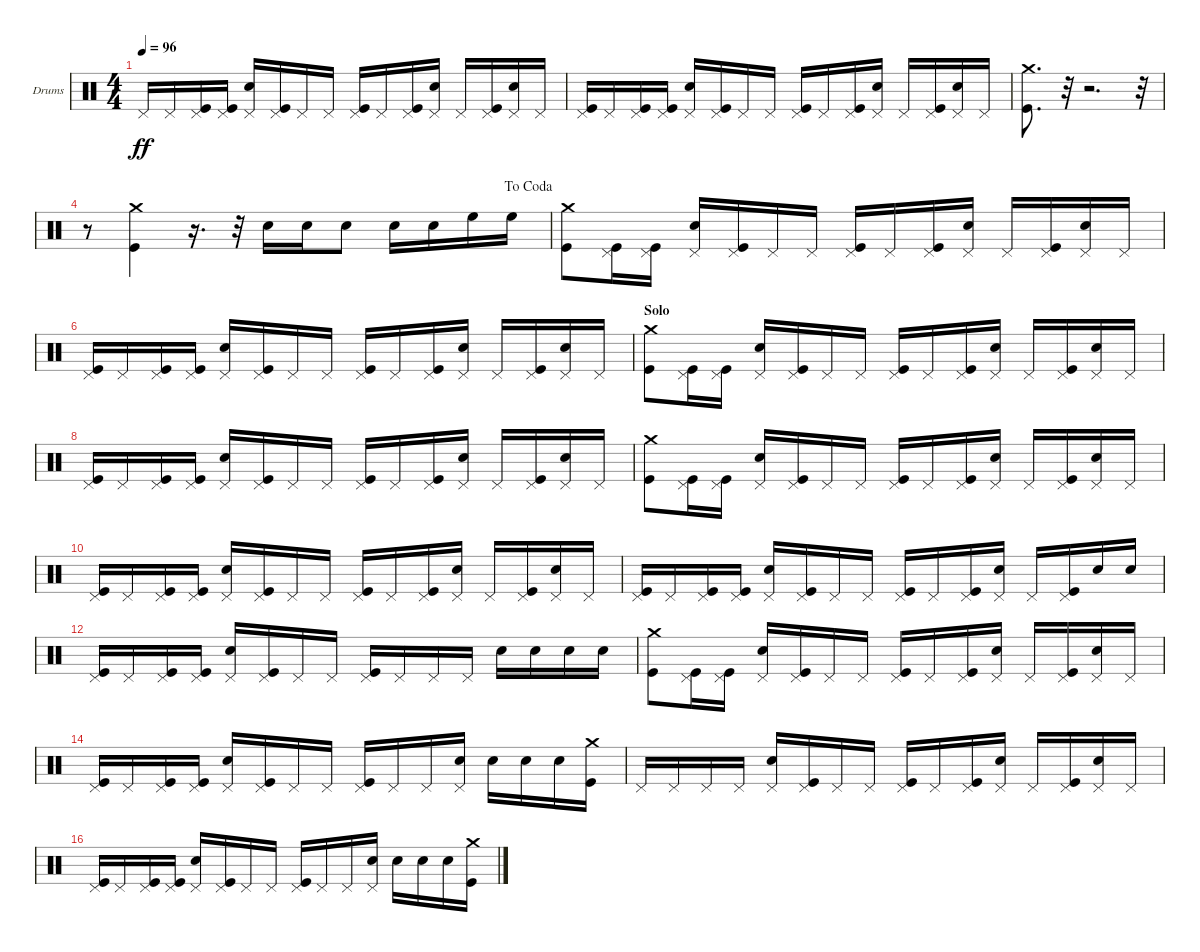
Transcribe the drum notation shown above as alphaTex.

\bracketExtendMode nobrackets
\firstSystemTrackNameOrientation horizontal
\otherSystemsTrackNameOrientation horizontal
\defaultBarNumberDisplay FirstOfSystem
\track ("Drums" "Drums") {instrument percussion}
\staff {score}
\articulation defaults
\ts (4 4)
\tempo 96
\clef neutral
\ks c "Pedal Hi-Hat (hit)".16{dy ff} "Pedal Hi-Hat (hit)".16
("Kick (hit)" "Pedal Hi-Hat (hit)").16 ("Kick (hit)" "Pedal Hi-Hat (hit)").16 ("Snare (hit) 2" "Pedal Hi-Hat (hit)").16 ("Kick (hit)" "Pedal Hi-Hat (hit)").16 "Pedal Hi-Hat (hit)".16 "Pedal Hi-Hat (hit)".16 ("Kick (hit)" "Pedal Hi-Hat (hit)").16 "Pedal Hi-Hat (hit)".16 ("Kick (hit)" "Pedal Hi-Hat (hit)").16 ("Snare (hit) 2" "Pedal Hi-Hat (hit)").16 "Pedal Hi-Hat (hit)".16 ("Kick (hit)" "Pedal Hi-Hat (hit)").16 ("Snare (hit) 2" "Pedal Hi-Hat (hit)").16 "Pedal Hi-Hat (hit)".16 |
("Kick (hit)" "Pedal Hi-Hat (hit)").16 "Pedal Hi-Hat (hit)".16 ("Kick (hit)" "Pedal Hi-Hat (hit)").16 ("Kick (hit)" "Pedal Hi-Hat (hit)").16 ("Snare (hit) 2" "Pedal Hi-Hat (hit)").16 ("Kick (hit)" "Pedal Hi-Hat (hit)").16 "Pedal Hi-Hat (hit)".16 "Pedal Hi-Hat (hit)".16 ("Kick (hit)" "Pedal Hi-Hat (hit)").16 "Pedal Hi-Hat (hit)".16 ("Kick (hit)" "Pedal Hi-Hat (hit)").16 ("Snare (hit) 2" "Pedal Hi-Hat (hit)").16 "Pedal Hi-Hat (hit)".16 ("Kick (hit)" "Pedal Hi-Hat (hit)").16 ("Snare (hit) 2" "Pedal Hi-Hat (hit)").16 "Pedal Hi-Hat (hit)".16 |
("Kick (hit)" "Crash medium (hit)").8{d} r.32 r.2{d} r.32 |
\jump dacoda
r.8 ("Kick (hit)" "Crash medium (hit)").4 r.16{d} r.32 "Snare (hit) 2".16 "Snare (hit) 2".16 "Snare (hit) 2".8 "Snare (hit) 2".16 "Snare (hit) 2".16 "High Floor Tom (hit)".16 "High Floor Tom (hit)".16 |
("Kick (hit)" "Crash medium (hit)").8 ("Kick (hit)" "Pedal Hi-Hat (hit)").16 ("Kick (hit)" "Pedal Hi-Hat (hit)").16 ("Snare (hit) 2" "Pedal Hi-Hat (hit)").16 ("Kick (hit)" "Pedal Hi-Hat (hit)").16 "Pedal Hi-Hat (hit)".16 "Pedal Hi-Hat (hit)".16 ("Kick (hit)" "Pedal Hi-Hat (hit)").16 "Pedal Hi-Hat (hit)".16 ("Kick (hit)" "Pedal Hi-Hat (hit)").16 ("Snare (hit) 2" "Pedal Hi-Hat (hit)").16 "Pedal Hi-Hat (hit)".16 ("Kick (hit)" "Pedal Hi-Hat (hit)").16 ("Snare (hit) 2" "Pedal Hi-Hat (hit)").16 "Pedal Hi-Hat (hit)".16 |
("Kick (hit)" "Pedal Hi-Hat (hit)").16 "Pedal Hi-Hat (hit)".16 ("Kick (hit)" "Pedal Hi-Hat (hit)").16 ("Kick (hit)" "Pedal Hi-Hat (hit)").16 ("Snare (hit) 2" "Pedal Hi-Hat (hit)").16 ("Kick (hit)" "Pedal Hi-Hat (hit)").16 "Pedal Hi-Hat (hit)".16 "Pedal Hi-Hat (hit)".16 ("Kick (hit)" "Pedal Hi-Hat (hit)").16 "Pedal Hi-Hat (hit)".16 ("Kick (hit)" "Pedal Hi-Hat (hit)").16 ("Snare (hit) 2" "Pedal Hi-Hat (hit)").16 "Pedal Hi-Hat (hit)".16 ("Kick (hit)" "Pedal Hi-Hat (hit)").16 ("Snare (hit) 2" "Pedal Hi-Hat (hit)").16 "Pedal Hi-Hat (hit)".16 |
\section ("" "Solo")
("Kick (hit)" "Crash medium (hit)").8 ("Kick (hit)" "Pedal Hi-Hat (hit)").16 ("Kick (hit)" "Pedal Hi-Hat (hit)").16 ("Snare (hit) 2" "Pedal Hi-Hat (hit)").16 ("Kick (hit)" "Pedal Hi-Hat (hit)").16 "Pedal Hi-Hat (hit)".16 "Pedal Hi-Hat (hit)".16 ("Kick (hit)" "Pedal Hi-Hat (hit)").16 "Pedal Hi-Hat (hit)".16 ("Kick (hit)" "Pedal Hi-Hat (hit)").16 ("Snare (hit) 2" "Pedal Hi-Hat (hit)").16 "Pedal Hi-Hat (hit)".16 ("Kick (hit)" "Pedal Hi-Hat (hit)").16 ("Snare (hit) 2" "Pedal Hi-Hat (hit)").16 "Pedal Hi-Hat (hit)".16 |
("Kick (hit)" "Pedal Hi-Hat (hit)").16 "Pedal Hi-Hat (hit)".16 ("Kick (hit)" "Pedal Hi-Hat (hit)").16 ("Kick (hit)" "Pedal Hi-Hat (hit)").16 ("Snare (hit) 2" "Pedal Hi-Hat (hit)").16 ("Kick (hit)" "Pedal Hi-Hat (hit)").16 "Pedal Hi-Hat (hit)".16 "Pedal Hi-Hat (hit)".16 ("Kick (hit)" "Pedal Hi-Hat (hit)").16 "Pedal Hi-Hat (hit)".16 ("Kick (hit)" "Pedal Hi-Hat (hit)").16 ("Snare (hit) 2" "Pedal Hi-Hat (hit)").16 "Pedal Hi-Hat (hit)".16 ("Kick (hit)" "Pedal Hi-Hat (hit)").16 ("Snare (hit) 2" "Pedal Hi-Hat (hit)").16 "Pedal Hi-Hat (hit)".16 |
("Kick (hit)" "Crash medium (hit)").8 ("Kick (hit)" "Pedal Hi-Hat (hit)").16 ("Kick (hit)" "Pedal Hi-Hat (hit)").16 ("Snare (hit) 2" "Pedal Hi-Hat (hit)").16 ("Kick (hit)" "Pedal Hi-Hat (hit)").16 "Pedal Hi-Hat (hit)".16 "Pedal Hi-Hat (hit)".16 ("Kick (hit)" "Pedal Hi-Hat (hit)").16 "Pedal Hi-Hat (hit)".16 ("Kick (hit)" "Pedal Hi-Hat (hit)").16 ("Snare (hit) 2" "Pedal Hi-Hat (hit)").16 "Pedal Hi-Hat (hit)".16 ("Kick (hit)" "Pedal Hi-Hat (hit)").16 ("Snare (hit) 2" "Pedal Hi-Hat (hit)").16 "Pedal Hi-Hat (hit)".16 |
("Kick (hit)" "Pedal Hi-Hat (hit)").16 "Pedal Hi-Hat (hit)".16 ("Kick (hit)" "Pedal Hi-Hat (hit)").16 ("Kick (hit)" "Pedal Hi-Hat (hit)").16 ("Snare (hit) 2" "Pedal Hi-Hat (hit)").16 ("Kick (hit)" "Pedal Hi-Hat (hit)").16 "Pedal Hi-Hat (hit)".16 "Pedal Hi-Hat (hit)".16 ("Kick (hit)" "Pedal Hi-Hat (hit)").16 "Pedal Hi-Hat (hit)".16 ("Kick (hit)" "Pedal Hi-Hat (hit)").16 ("Snare (hit) 2" "Pedal Hi-Hat (hit)").16 "Pedal Hi-Hat (hit)".16 ("Kick (hit)" "Pedal Hi-Hat (hit)").16 ("Snare (hit) 2" "Pedal Hi-Hat (hit)").16 "Pedal Hi-Hat (hit)".16 |
("Kick (hit)" "Pedal Hi-Hat (hit)").16 "Pedal Hi-Hat (hit)".16 ("Kick (hit)" "Pedal Hi-Hat (hit)").16 ("Kick (hit)" "Pedal Hi-Hat (hit)").16 ("Snare (hit) 2" "Pedal Hi-Hat (hit)").16 ("Kick (hit)" "Pedal Hi-Hat (hit)").16 "Pedal Hi-Hat (hit)".16 "Pedal Hi-Hat (hit)".16 ("Kick (hit)" "Pedal Hi-Hat (hit)").16 "Pedal Hi-Hat (hit)".16 ("Kick (hit)" "Pedal Hi-Hat (hit)").16 ("Snare (hit) 2" "Pedal Hi-Hat (hit)").16 "Pedal Hi-Hat (hit)".16 ("Kick (hit)" "Pedal Hi-Hat (hit)").16 "Snare (hit) 2".16 "Snare (hit) 2".16 |
("Kick (hit)" "Pedal Hi-Hat (hit)").16 "Pedal Hi-Hat (hit)".16 ("Kick (hit)" "Pedal Hi-Hat (hit)").16 ("Kick (hit)" "Pedal Hi-Hat (hit)").16 ("Snare (hit) 2" "Pedal Hi-Hat (hit)").16 ("Kick (hit)" "Pedal Hi-Hat (hit)").16 "Pedal Hi-Hat (hit)".16 "Pedal Hi-Hat (hit)".16 ("Kick (hit)" "Pedal Hi-Hat (hit)").16 "Pedal Hi-Hat (hit)".16 "Pedal Hi-Hat (hit)".16 "Pedal Hi-Hat (hit)".16 "Snare (hit) 2".16 "Snare (hit) 2".16 "Snare (hit) 2".16 "Snare (hit) 2".16 |
("Kick (hit)" "Crash medium (hit)").8 ("Kick (hit)" "Pedal Hi-Hat (hit)").16 ("Kick (hit)" "Pedal Hi-Hat (hit)").16 ("Snare (hit) 2" "Pedal Hi-Hat (hit)").16 ("Kick (hit)" "Pedal Hi-Hat (hit)").16 "Pedal Hi-Hat (hit)".16 "Pedal Hi-Hat (hit)".16 ("Kick (hit)" "Pedal Hi-Hat (hit)").16 "Pedal Hi-Hat (hit)".16 ("Kick (hit)" "Pedal Hi-Hat (hit)").16 ("Snare (hit) 2" "Pedal Hi-Hat (hit)").16 "Pedal Hi-Hat (hit)".16 ("Kick (hit)" "Pedal Hi-Hat (hit)").16 ("Snare (hit) 2" "Pedal Hi-Hat (hit)").16 "Pedal Hi-Hat (hit)".16 |
("Kick (hit)" "Pedal Hi-Hat (hit)").16 "Pedal Hi-Hat (hit)".16 ("Kick (hit)" "Pedal Hi-Hat (hit)").16 ("Kick (hit)" "Pedal Hi-Hat (hit)").16 ("Snare (hit) 2" "Pedal Hi-Hat (hit)").16 ("Kick (hit)" "Pedal Hi-Hat (hit)").16 "Pedal Hi-Hat (hit)".16 "Pedal Hi-Hat (hit)".16 ("Kick (hit)" "Pedal Hi-Hat (hit)").16 "Pedal Hi-Hat (hit)".16 "Pedal Hi-Hat (hit)".16 ("Snare (hit) 2" "Pedal Hi-Hat (hit)").16 "Snare (hit) 2".16 "Snare (hit) 2".16 "Snare (hit) 2".16 ("Kick (hit)" "Crash medium (hit)").16 |
"Pedal Hi-Hat (hit)".16 "Pedal Hi-Hat (hit)".16 "Pedal Hi-Hat (hit)".16 "Pedal Hi-Hat (hit)".16 ("Snare (hit) 2" "Pedal Hi-Hat (hit)").16 ("Kick (hit)" "Pedal Hi-Hat (hit)").16 "Pedal Hi-Hat (hit)".16 "Pedal Hi-Hat (hit)".16 ("Kick (hit)" "Pedal Hi-Hat (hit)").16 "Pedal Hi-Hat (hit)".16 ("Kick (hit)" "Pedal Hi-Hat (hit)").16 ("Snare (hit) 2" "Pedal Hi-Hat (hit)").16 "Pedal Hi-Hat (hit)".16 ("Kick (hit)" "Pedal Hi-Hat (hit)").16 ("Snare (hit) 2" "Pedal Hi-Hat (hit)").16 "Pedal Hi-Hat (hit)".16 |
("Kick (hit)" "Pedal Hi-Hat (hit)").16 "Pedal Hi-Hat (hit)".16 ("Kick (hit)" "Pedal Hi-Hat (hit)").16 ("Kick (hit)" "Pedal Hi-Hat (hit)").16 ("Snare (hit) 2" "Pedal Hi-Hat (hit)").16 ("Kick (hit)" "Pedal Hi-Hat (hit)").16 "Pedal Hi-Hat (hit)".16 "Pedal Hi-Hat (hit)".16 ("Kick (hit)" "Pedal Hi-Hat (hit)").16 "Pedal Hi-Hat (hit)".16 "Pedal Hi-Hat (hit)".16 ("Snare (hit) 2" "Pedal Hi-Hat (hit)").16 "Snare (hit) 2".16 "Snare (hit) 2".16 "Snare (hit) 2".16 ("Kick (hit)" "Crash medium (hit)").16
